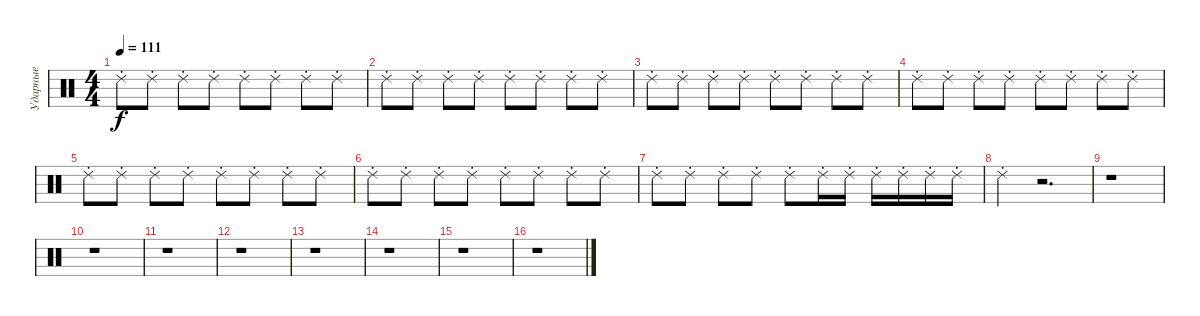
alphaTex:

\track ("Ударные" "Ударные") {instrument percussion}
\staff {score}
\articulation defaults
\ts (4 4)
\tempo 111
\clef neutral
\ks c "Ride (choke) 2".8{dy f} "Ride (choke) 2".8 "Ride (choke) 2".8 "Ride (choke) 2".8 "Ride (choke) 2".8 "Ride (choke) 2".8 "Ride (choke) 2".8 "Ride (choke) 2".8
|
"Ride (choke) 2".8 "Ride (choke) 2".8 "Ride (choke) 2".8 "Ride (choke) 2".8 "Ride (choke) 2".8 "Ride (choke) 2".8 "Ride (choke) 2".8 "Ride (choke) 2".8 |
"Ride (choke) 2".8 "Ride (choke) 2".8 "Ride (choke) 2".8 "Ride (choke) 2".8 "Ride (choke) 2".8 "Ride (choke) 2".8 "Ride (choke) 2".8 "Ride (choke) 2".8 |
"Ride (choke) 2".8 "Ride (choke) 2".8 "Ride (choke) 2".8 "Ride (choke) 2".8 "Ride (choke) 2".8 "Ride (choke) 2".8 "Ride (choke) 2".8 "Ride (choke) 2".8 |
"Ride (choke) 2".8 "Ride (choke) 2".8 "Ride (choke) 2".8 "Ride (choke) 2".8 "Ride (choke) 2".8 "Ride (choke) 2".8 "Ride (choke) 2".8 "Ride (choke) 2".8 |
"Ride (choke) 2".8 "Ride (choke) 2".8 "Ride (choke) 2".8 "Ride (choke) 2".8 "Ride (choke) 2".8 "Ride (choke) 2".8 "Ride (choke) 2".8 "Ride (choke) 2".8 |
"Ride (choke) 2".8 "Ride (choke) 2".8 "Ride (choke) 2".8 "Ride (choke) 2".8 "Ride (choke) 2".8 "Ride (choke) 2".16 "Ride (choke) 2".16 "Ride (choke) 2".16 "Ride (choke) 2".16 "Ride (choke) 2".16 "Ride (choke) 2".16 |
"Ride (choke) 2".4 r.2{d} |
r.1 |
r.1 |
r.1 |
r.1 |
r.1 |
r.1 |
r.1 |
r.1
